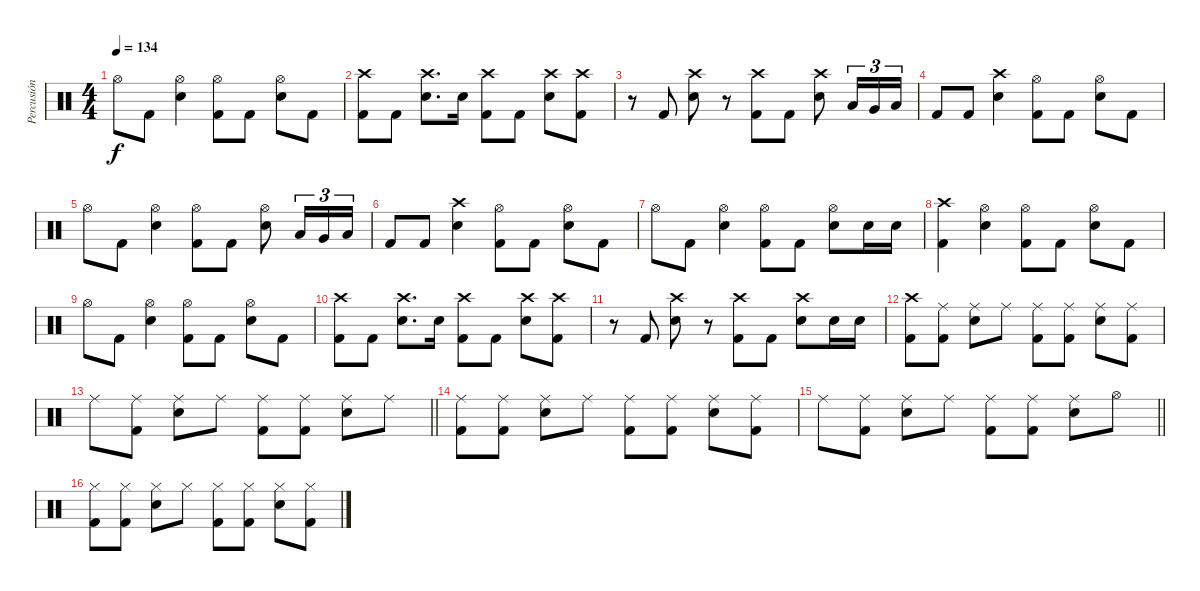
\track ("Percusión" "Percusión") {instrument percussion}
\staff {score}
\articulation defaults
\ts (4 4)
\tempo 134
\clef neutral
\ks c "Hi-Hat (open)".8{dy f} "Kick (hit) 2".8
("Hi-Hat (open)" "Electric Snare (hit)").4 ("Hi-Hat (open)" "Kick (hit) 2").8 "Kick (hit) 2".8 ("Hi-Hat (open)" "Electric Snare (hit)").8 "Kick (hit) 2".8 |
("Crash high (hit)" "Kick (hit) 2").8 "Kick (hit) 2".8 ("Crash high (hit)" "Electric Snare (hit)").8{d} "Electric Snare (hit)".16 ("Crash high (hit)" "Kick (hit) 2").8 "Kick (hit) 2".8 ("Crash high (hit)" "Electric Snare (hit)").8 ("Crash high (hit)" "Kick (hit) 2").8 |
r.8 "Kick (hit) 2".8 ("Crash high (hit)" "Electric Snare (hit)").8 r.8 ("Crash high (hit)" "Kick (hit) 2").8 "Kick (hit) 2".8 ("Crash high (hit)" "Electric Snare (hit)").8 "Low Tom (hit)".16{tu (3 2)} "Very Low Tom (hit)".16{tu (3 2)} "Low Floor Tom (hit)".16{tu (3 2)} |
"Kick (hit) 2".8 "Kick (hit) 2".8 ("Crash high (hit)" "Electric Snare (hit)").4 ("Hi-Hat (open)" "Kick (hit) 2").8 "Kick (hit) 2".8 ("Hi-Hat (open)" "Electric Snare (hit)").8 "Kick (hit) 2".8 |
"Hi-Hat (open)".8 "Kick (hit) 2".8 ("Hi-Hat (open)" "Electric Snare (hit)").4 ("Hi-Hat (open)" "Kick (hit) 2").8 "Kick (hit) 2".8 ("Hi-Hat (open)" "Electric Snare (hit)").8 "Low Tom (hit)".16{tu (3 2)} "Very Low Tom (hit)".16{tu (3 2)} "Low Floor Tom (hit)".16{tu (3 2)} |
"Kick (hit) 2".8 "Kick (hit) 2".8 ("Crash high (hit)" "Electric Snare (hit)").4 ("Hi-Hat (open)" "Kick (hit) 2").8 "Kick (hit) 2".8 ("Hi-Hat (open)" "Electric Snare (hit)").8 "Kick (hit) 2".8 |
"Hi-Hat (open)".8 "Kick (hit) 2".8 ("Hi-Hat (open)" "Electric Snare (hit)").4 ("Hi-Hat (open)" "Kick (hit) 2").8 "Kick (hit) 2".8 ("Hi-Hat (open)" "Electric Snare (hit)").8 "Electric Snare (hit)".16 "Electric Snare (hit)".16 |
("Crash high (hit)" "Kick (hit) 2").4 ("Hi-Hat (open)" "Electric Snare (hit)").4 ("Hi-Hat (open)" "Kick (hit) 2").8 "Kick (hit) 2".8 ("Hi-Hat (open)" "Electric Snare (hit)").8 "Kick (hit) 2".8 |
"Hi-Hat (open)".8 "Kick (hit) 2".8 ("Hi-Hat (open)" "Electric Snare (hit)").4 ("Hi-Hat (open)" "Kick (hit) 2").8 "Kick (hit) 2".8 ("Hi-Hat (open)" "Electric Snare (hit)").8 "Kick (hit) 2".8 |
("Crash high (hit)" "Kick (hit) 2").8 "Kick (hit) 2".8 ("Crash high (hit)" "Electric Snare (hit)").8{d} "Electric Snare (hit)".16 ("Crash high (hit)" "Kick (hit) 2").8 "Kick (hit) 2".8 ("Crash high (hit)" "Electric Snare (hit)").8 ("Crash high (hit)" "Kick (hit) 2").8 |
r.8 "Kick (hit) 2".8 ("Crash high (hit)" "Electric Snare (hit)").8 r.8 ("Crash high (hit)" "Kick (hit) 2").8 "Kick (hit) 2".8 ("Crash high (hit)" "Electric Snare (hit)").8 "Electric Snare (hit)".16 "Electric Snare (hit)".16 |
("Crash high (hit)" "Kick (hit) 2").8 ("Ride (middle)" "Kick (hit) 2").8 ("Ride (middle)" "Electric Snare (hit)").8 "Ride (middle)".8 ("Ride (middle)" "Kick (hit) 2").8 ("Ride (middle)" "Kick (hit) 2").8 ("Ride (middle)" "Electric Snare (hit)").8 ("Ride (middle)" "Kick (hit) 2").8 |
\barLineRight lightlight "Ride (middle)".8
("Ride (middle)" "Kick (hit) 2").8 ("Ride (middle)" "Electric Snare (hit)").8 "Ride (middle)".8 ("Ride (middle)" "Kick (hit) 2").8 ("Ride (middle)" "Kick (hit) 2").8 ("Ride (middle)" "Electric Snare (hit)").8 "Ride (middle)".8 |
("Ride (middle)" "Kick (hit) 2").8 ("Ride (middle)" "Kick (hit) 2").8 ("Ride (middle)" "Electric Snare (hit)").8 "Ride (middle)".8 ("Ride (middle)" "Kick (hit) 2").8 ("Ride (middle)" "Kick (hit) 2").8 ("Ride (middle)" "Electric Snare (hit)").8 ("Ride (middle)" "Kick (hit) 2").8 |
\barLineRight lightlight "Ride (middle)".8
("Ride (middle)" "Kick (hit) 2").8 ("Ride (middle)" "Electric Snare (hit)").8 "Ride (middle)".8 ("Ride (middle)" "Kick (hit) 2").8 ("Ride (middle)" "Kick (hit) 2").8 ("Ride (middle)" "Electric Snare (hit)").8 "Hi-Hat (open)".8 |
("Hi-Hat (closed)" "Kick (hit) 2").8 ("Hi-Hat (closed)" "Kick (hit) 2").8 ("Hi-Hat (closed)" "Electric Snare (hit)").8 "Hi-Hat (closed)".8 ("Hi-Hat (closed)" "Kick (hit) 2").8 ("Hi-Hat (closed)" "Kick (hit) 2").8 ("Hi-Hat (closed)" "Electric Snare (hit)").8 ("Hi-Hat (closed)" "Kick (hit) 2").8
